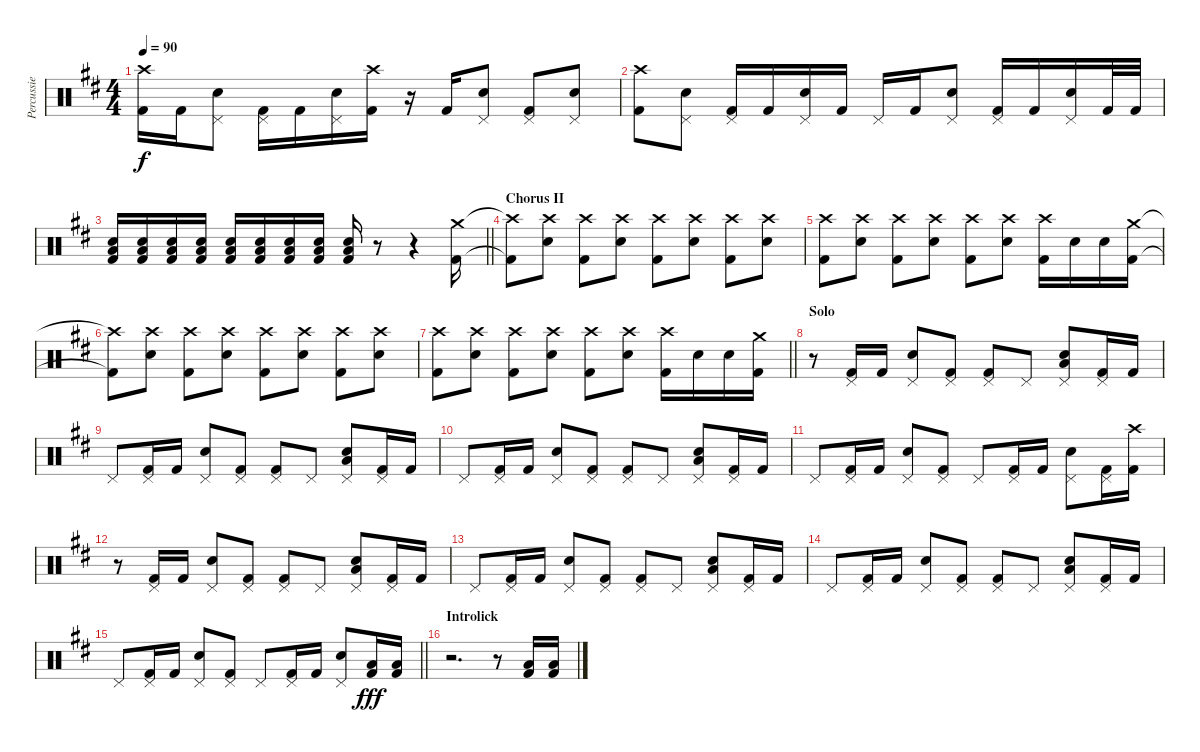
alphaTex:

\track ("Percussie" "Percussie") {instrument percussion}
\staff {score}
\articulation defaults
\ts (4 4)
\tempo 90
\clef neutral
\ks bminor
("Crash high (hit)" "Kick (hit) 2").16{dy f} "Kick (hit) 2".16 ("Pedal Hi-Hat (hit)" "Electric Snare (hit)").8 ("Pedal Hi-Hat (hit)" "Kick (hit) 2").16 "Kick (hit) 2".16 ("Pedal Hi-Hat (hit)" "Electric Snare (hit)").16 ("Crash high (hit)" "Kick (hit) 2").16 r.16 "Kick (hit) 2".16 ("Pedal Hi-Hat (hit)" "Electric Snare (hit)").8 ("Pedal Hi-Hat (hit)" "Kick (hit) 2").8 ("Pedal Hi-Hat (hit)" "Electric Snare (hit)").8 |
("Crash high (hit)" "Kick (hit) 2").8 ("Pedal Hi-Hat (hit)" "Electric Snare (hit)").8 ("Pedal Hi-Hat (hit)" "Kick (hit) 2").16 "Kick (hit) 2".16 ("Pedal Hi-Hat (hit)" "Electric Snare (hit)").16 "Kick (hit) 2".16 "Pedal Hi-Hat (hit)".16 "Kick (hit) 2".16 ("Pedal Hi-Hat (hit)" "Electric Snare (hit)").8 ("Pedal Hi-Hat (hit)" "Kick (hit) 2").16 "Kick (hit) 2".16 ("Pedal Hi-Hat (hit)" "Electric Snare (hit)").16 "Kick (hit) 2".32 "Kick (hit) 2".32 |
\barLineRight lightlight
("Electric Snare (hit)" "Low Floor Tom (hit)" "Kick (hit) 2").16 ("Electric Snare (hit)" "Low Floor Tom (hit)" "Kick (hit) 2").16 ("Electric Snare (hit)" "Low Floor Tom (hit)" "Kick (hit) 2").16 ("Electric Snare (hit)" "Low Floor Tom (hit)" "Kick (hit) 2").16 ("Electric Snare (hit)" "Low Floor Tom (hit)" "Kick (hit) 2").16 ("Electric Snare (hit)" "Low Floor Tom (hit)" "Kick (hit) 2").16 ("Electric Snare (hit)" "Low Floor Tom (hit)" "Kick (hit) 2").16 ("Electric Snare (hit)" "Low Floor Tom (hit)" "Kick (hit) 2").16 ("Electric Snare (hit)" "Low Floor Tom (hit)" "Kick (hit) 2").16 r.8 r.4 ("Crash medium (hit)" "Kick (hit) 2").16 |
\section ("" "Chorus II")
("Crash high (hit)"{t} "Kick (hit) 2"{t}).8 ("Crash high (hit)" "Electric Snare (hit)").8 ("Crash high (hit)" "Kick (hit) 2").8 ("Crash high (hit)" "Electric Snare (hit)").8 ("Crash high (hit)" "Kick (hit) 2").8 ("Crash high (hit)" "Electric Snare (hit)").8 ("Crash high (hit)" "Kick (hit) 2").8 ("Crash high (hit)" "Electric Snare (hit)").8 |
("Crash high (hit)" "Kick (hit) 2").8 ("Crash high (hit)" "Electric Snare (hit)").8 ("Crash high (hit)" "Kick (hit) 2").8 ("Crash high (hit)" "Electric Snare (hit)").8 ("Crash high (hit)" "Kick (hit) 2").8 ("Crash high (hit)" "Electric Snare (hit)").8 ("Crash high (hit)" "Kick (hit) 2").16 "Electric Snare (hit)".16 "Electric Snare (hit)".16 ("Crash medium (hit)" "Kick (hit) 2").16 |
("Crash high (hit)"{t} "Kick (hit) 2"{t}).8 ("Crash high (hit)" "Electric Snare (hit)").8 ("Crash high (hit)" "Kick (hit) 2").8 ("Crash high (hit)" "Electric Snare (hit)").8 ("Crash high (hit)" "Kick (hit) 2").8 ("Crash high (hit)" "Electric Snare (hit)").8 ("Crash high (hit)" "Kick (hit) 2").8 ("Crash high (hit)" "Electric Snare (hit)").8 |
\barLineRight lightlight
("Crash high (hit)" "Kick (hit) 2").8 ("Crash high (hit)" "Electric Snare (hit)").8 ("Crash high (hit)" "Kick (hit) 2").8 ("Crash high (hit)" "Electric Snare (hit)").8 ("Crash high (hit)" "Kick (hit) 2").8 ("Crash high (hit)" "Electric Snare (hit)").8 ("Crash high (hit)" "Kick (hit) 2").16 "Electric Snare (hit)".16 "Electric Snare (hit)".16 ("Crash medium (hit)" "Kick (hit) 2").16 |
\section ("" "Solo")
r.8 ("Pedal Hi-Hat (hit)" "Kick (hit) 2").16 "Kick (hit) 2".16 ("Pedal Hi-Hat (hit)" "Electric Snare (hit)").8 ("Pedal Hi-Hat (hit)" "Kick (hit) 2").8 ("Pedal Hi-Hat (hit)" "Kick (hit) 2").8 "Pedal Hi-Hat (hit)".8 ("Pedal Hi-Hat (hit)" "Electric Snare (hit)" "Low Floor Tom (hit)").8 ("Pedal Hi-Hat (hit)" "Kick (hit) 2").16 "Kick (hit) 2".16 |
"Pedal Hi-Hat (hit)".8 ("Pedal Hi-Hat (hit)" "Kick (hit) 2").16 "Kick (hit) 2".16 ("Pedal Hi-Hat (hit)" "Electric Snare (hit)").8 ("Pedal Hi-Hat (hit)" "Kick (hit) 2").8 ("Pedal Hi-Hat (hit)" "Kick (hit) 2").8 "Pedal Hi-Hat (hit)".8 ("Pedal Hi-Hat (hit)" "Electric Snare (hit)" "Low Floor Tom (hit)").8 ("Pedal Hi-Hat (hit)" "Kick (hit) 2").16 "Kick (hit) 2".16 |
"Pedal Hi-Hat (hit)".8 ("Pedal Hi-Hat (hit)" "Kick (hit) 2").16 "Kick (hit) 2".16 ("Pedal Hi-Hat (hit)" "Electric Snare (hit)").8 ("Pedal Hi-Hat (hit)" "Kick (hit) 2").8 ("Pedal Hi-Hat (hit)" "Kick (hit) 2").8 "Pedal Hi-Hat (hit)".8 ("Pedal Hi-Hat (hit)" "Electric Snare (hit)" "Low Floor Tom (hit)").8 ("Pedal Hi-Hat (hit)" "Kick (hit) 2").16 "Kick (hit) 2".16 |
"Pedal Hi-Hat (hit)".8 ("Pedal Hi-Hat (hit)" "Kick (hit) 2").16 "Kick (hit) 2".16 ("Pedal Hi-Hat (hit)" "Electric Snare (hit)").8 ("Pedal Hi-Hat (hit)" "Kick (hit) 2").8 "Pedal Hi-Hat (hit)".8 ("Pedal Hi-Hat (hit)" "Kick (hit) 2").16 "Kick (hit) 2".16 ("Pedal Hi-Hat (hit)" "Electric Snare (hit)").8 ("Pedal Hi-Hat (hit)" "Kick (hit) 2").16 ("Crash high (hit)" "Kick (hit) 2").16 |
r.8 ("Pedal Hi-Hat (hit)" "Kick (hit) 2").16 "Kick (hit) 2".16 ("Pedal Hi-Hat (hit)" "Electric Snare (hit)").8 ("Pedal Hi-Hat (hit)" "Kick (hit) 2").8 ("Pedal Hi-Hat (hit)" "Kick (hit) 2").8 "Pedal Hi-Hat (hit)".8 ("Pedal Hi-Hat (hit)" "Electric Snare (hit)" "Low Floor Tom (hit)").8 ("Pedal Hi-Hat (hit)" "Kick (hit) 2").16 "Kick (hit) 2".16 |
"Pedal Hi-Hat (hit)".8 ("Pedal Hi-Hat (hit)" "Kick (hit) 2").16 "Kick (hit) 2".16 ("Pedal Hi-Hat (hit)" "Electric Snare (hit)").8 ("Pedal Hi-Hat (hit)" "Kick (hit) 2").8 ("Pedal Hi-Hat (hit)" "Kick (hit) 2").8 "Pedal Hi-Hat (hit)".8 ("Pedal Hi-Hat (hit)" "Electric Snare (hit)" "Low Floor Tom (hit)").8 ("Pedal Hi-Hat (hit)" "Kick (hit) 2").16 "Kick (hit) 2".16 |
"Pedal Hi-Hat (hit)".8 ("Pedal Hi-Hat (hit)" "Kick (hit) 2").16 "Kick (hit) 2".16 ("Pedal Hi-Hat (hit)" "Electric Snare (hit)").8 ("Pedal Hi-Hat (hit)" "Kick (hit) 2").8 ("Pedal Hi-Hat (hit)" "Kick (hit) 2").8 "Pedal Hi-Hat (hit)".8 ("Pedal Hi-Hat (hit)" "Electric Snare (hit)" "Low Floor Tom (hit)").8 ("Pedal Hi-Hat (hit)" "Kick (hit) 2").16 "Kick (hit) 2".16 |
\barLineRight lightlight "Pedal Hi-Hat (hit)".8
("Pedal Hi-Hat (hit)" "Kick (hit) 2").16 "Kick (hit) 2".16 ("Pedal Hi-Hat (hit)" "Electric Snare (hit)").8 ("Pedal Hi-Hat (hit)" "Kick (hit) 2").8 "Pedal Hi-Hat (hit)".8 ("Pedal Hi-Hat (hit)" "Kick (hit) 2").16 "Kick (hit) 2".16 ("Pedal Hi-Hat (hit)" "Electric Snare (hit)").8 ("Low Floor Tom (hit)" "Kick (hit) 2").16{dy fff} ("Low Floor Tom (hit)" "Kick (hit) 2").16 |
\section ("" "Introlick")
r.2{d} r.8 ("Low Floor Tom (hit)" "Kick (hit) 2").16 ("Low Floor Tom (hit)" "Kick (hit) 2").16
